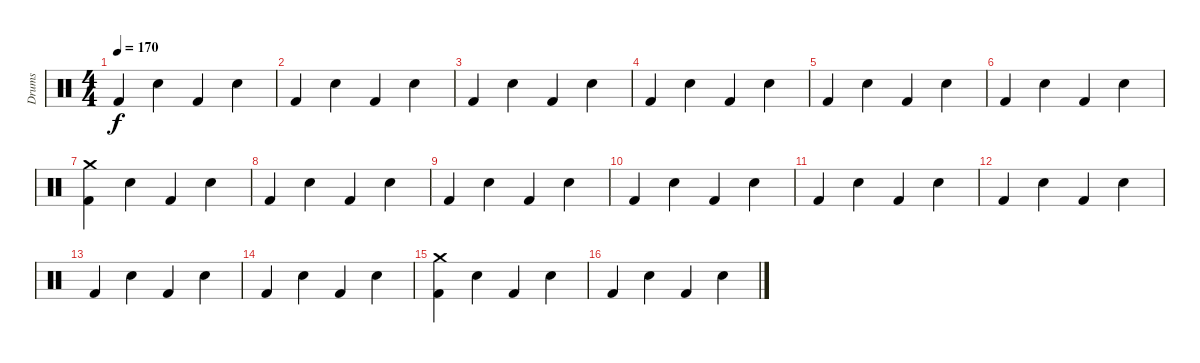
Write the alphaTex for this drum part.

\track ("Drums" "Drums") {instrument percussion}
\staff {score}
\articulation defaults
\ts (4 4)
\tempo 170
\clef neutral
\ks c "Kick (hit) 2".4{dy f} "Snare (hit) 2".4 "Kick (hit) 2".4 "Snare (hit) 2".4
|
"Kick (hit) 2".4 "Snare (hit) 2".4 "Kick (hit) 2".4 "Snare (hit) 2".4 |
"Kick (hit) 2".4 "Snare (hit) 2".4 "Kick (hit) 2".4 "Snare (hit) 2".4 |
"Kick (hit) 2".4 "Snare (hit) 2".4 "Kick (hit) 2".4 "Snare (hit) 2".4 |
"Kick (hit) 2".4 "Snare (hit) 2".4 "Kick (hit) 2".4 "Snare (hit) 2".4 |
"Kick (hit) 2".4 "Snare (hit) 2".4 "Kick (hit) 2".4 "Snare (hit) 2".4 |
("Crash medium (hit)" "Kick (hit) 2").4 "Snare (hit) 2".4 "Kick (hit) 2".4 "Snare (hit) 2".4 |
"Kick (hit) 2".4 "Snare (hit) 2".4 "Kick (hit) 2".4 "Snare (hit) 2".4 |
"Kick (hit) 2".4 "Snare (hit) 2".4 "Kick (hit) 2".4 "Snare (hit) 2".4 |
"Kick (hit) 2".4 "Snare (hit) 2".4 "Kick (hit) 2".4 "Snare (hit) 2".4 |
"Kick (hit) 2".4 "Snare (hit) 2".4 "Kick (hit) 2".4 "Snare (hit) 2".4 |
"Kick (hit) 2".4 "Snare (hit) 2".4 "Kick (hit) 2".4 "Snare (hit) 2".4 |
"Kick (hit) 2".4 "Snare (hit) 2".4 "Kick (hit) 2".4 "Snare (hit) 2".4 |
"Kick (hit) 2".4 "Snare (hit) 2".4 "Kick (hit) 2".4 "Snare (hit) 2".4 |
("Crash medium (hit)" "Kick (hit) 2").4 "Snare (hit) 2".4 "Kick (hit) 2".4 "Snare (hit) 2".4 |
"Kick (hit) 2".4 "Snare (hit) 2".4 "Kick (hit) 2".4 "Snare (hit) 2".4
